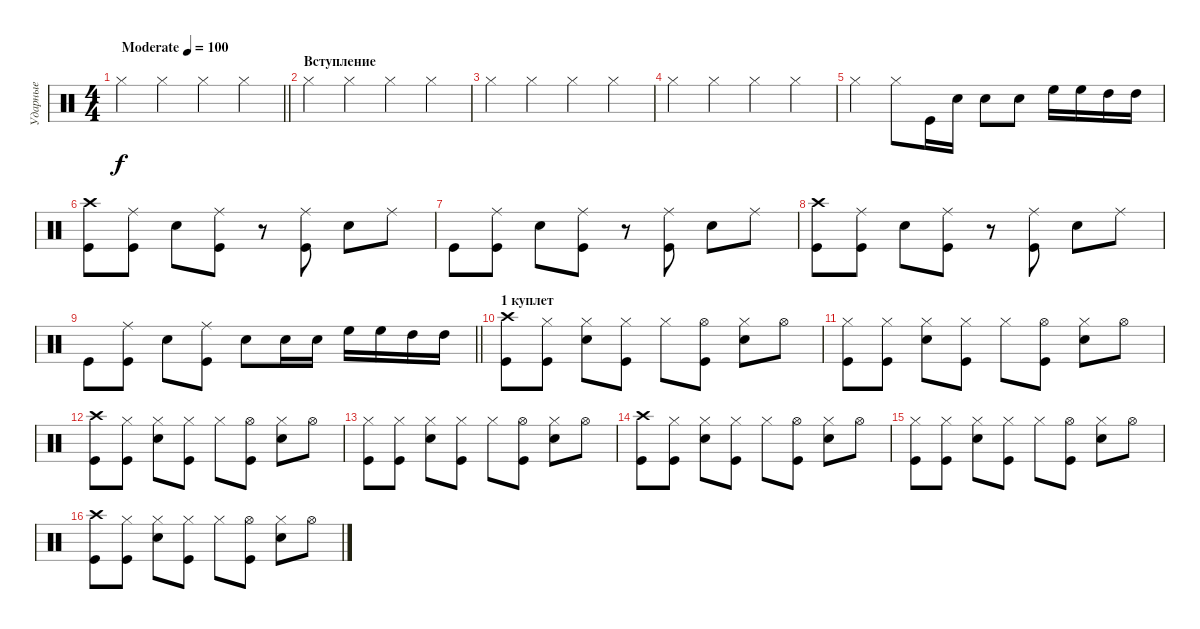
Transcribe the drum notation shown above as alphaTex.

\track ("Ударные" "Ударные") {instrument percussion}
\staff {score}
\articulation defaults
\ts (4 4)
\tempo (100 "Moderate")
\clef neutral
\barLineRight lightlight
\ks c "Hi-Hat (closed)".4{dy f} "Hi-Hat (closed)".4 "Hi-Hat (closed)".4 "Hi-Hat (closed)".4
|
\section ("" "Вступление")
"Hi-Hat (closed)".4 "Hi-Hat (closed)".4 "Hi-Hat (closed)".4 "Hi-Hat (closed)".4 |
"Hi-Hat (closed)".4 "Hi-Hat (closed)".4 "Hi-Hat (closed)".4 "Hi-Hat (closed)".4 |
"Hi-Hat (closed)".4 "Hi-Hat (closed)".4 "Hi-Hat (closed)".4 "Hi-Hat (closed)".4 |
"Hi-Hat (closed)".4 "Hi-Hat (closed)".8 "Kick (hit)".16 "Snare (hit) 2".16 "Snare (hit) 2".8 "Snare (hit) 2".8 "High Floor Tom (hit)".16 "High Floor Tom (hit)".16 "High Tom (hit)".16 "High Tom (hit)".16 |
("Kick (hit)" "Crash high (hit)").8 ("Kick (hit)" "Ride (middle)").8 "Snare (hit) 2".8 ("Ride (middle)" "Kick (hit)").8 r.8 ("Ride (middle)" "Kick (hit)").8 "Snare (hit) 2".8 "Ride (middle)".8 |
"Kick (hit)".8 ("Kick (hit)" "Ride (middle)").8 "Snare (hit) 2".8 ("Ride (middle)" "Kick (hit)").8 r.8 ("Ride (middle)" "Kick (hit)").8 "Snare (hit) 2".8 "Ride (middle)".8 |
("Kick (hit)" "Crash high (hit)").8 ("Kick (hit)" "Ride (middle)").8 "Snare (hit) 2".8 ("Ride (middle)" "Kick (hit)").8 r.8 ("Ride (middle)" "Kick (hit)").8 "Snare (hit) 2".8 "Ride (middle)".8 |
\barLineRight lightlight "Kick (hit)".8
("Kick (hit)" "Ride (middle)").8 "Snare (hit) 2".8 ("Kick (hit)" "Ride (middle)").8 "Snare (hit) 2".8 "Snare (hit) 2".16 "Snare (hit) 2".16 "High Floor Tom (hit)".16 "High Floor Tom (hit)".16 "High Tom (hit)".16 "High Tom (hit)".16 |
\section ("" "1 куплет")
("Kick (hit)" "Crash high (hit)").8 ("Kick (hit)" "Hi-Hat (closed)").8 ("Snare (hit) 2" "Hi-Hat (closed)").8 ("Hi-Hat (closed)" "Kick (hit)").8 "Hi-Hat (closed)".8 ("Hi-Hat (open)" "Kick (hit)").8 ("Hi-Hat (closed)" "Snare (hit) 2").8 "Hi-Hat (open)".8 |
("Kick (hit)" "Hi-Hat (closed)").8 ("Kick (hit)" "Hi-Hat (closed)").8 ("Snare (hit) 2" "Hi-Hat (closed)").8 ("Hi-Hat (closed)" "Kick (hit)").8 "Hi-Hat (closed)".8 ("Kick (hit)" "Hi-Hat (open)").8 ("Hi-Hat (closed)" "Snare (hit) 2").8 "Hi-Hat (open)".8 |
("Kick (hit)" "Crash high (hit)").8 ("Kick (hit)" "Hi-Hat (closed)").8 ("Snare (hit) 2" "Hi-Hat (closed)").8 ("Hi-Hat (closed)" "Kick (hit)").8 "Hi-Hat (closed)".8 ("Hi-Hat (open)" "Kick (hit)").8 ("Hi-Hat (closed)" "Snare (hit) 2").8 "Hi-Hat (open)".8 |
("Kick (hit)" "Hi-Hat (closed)").8 ("Kick (hit)" "Hi-Hat (closed)").8 ("Snare (hit) 2" "Hi-Hat (closed)").8 ("Hi-Hat (closed)" "Kick (hit)").8 "Hi-Hat (closed)".8 ("Kick (hit)" "Hi-Hat (open)").8 ("Hi-Hat (closed)" "Snare (hit) 2").8 "Hi-Hat (open)".8 |
("Kick (hit)" "Crash high (hit)").8 ("Kick (hit)" "Hi-Hat (closed)").8 ("Snare (hit) 2" "Hi-Hat (closed)").8 ("Hi-Hat (closed)" "Kick (hit)").8 "Hi-Hat (closed)".8 ("Hi-Hat (open)" "Kick (hit)").8 ("Hi-Hat (closed)" "Snare (hit) 2").8 "Hi-Hat (open)".8 |
("Kick (hit)" "Hi-Hat (closed)").8 ("Kick (hit)" "Hi-Hat (closed)").8 ("Snare (hit) 2" "Hi-Hat (closed)").8 ("Hi-Hat (closed)" "Kick (hit)").8 "Hi-Hat (closed)".8 ("Kick (hit)" "Hi-Hat (open)").8 ("Hi-Hat (closed)" "Snare (hit) 2").8 "Hi-Hat (open)".8 |
("Kick (hit)" "Crash high (hit)").8 ("Kick (hit)" "Hi-Hat (closed)").8 ("Snare (hit) 2" "Hi-Hat (closed)").8 ("Hi-Hat (closed)" "Kick (hit)").8 "Hi-Hat (closed)".8 ("Hi-Hat (open)" "Kick (hit)").8 ("Hi-Hat (closed)" "Snare (hit) 2").8 "Hi-Hat (open)".8
